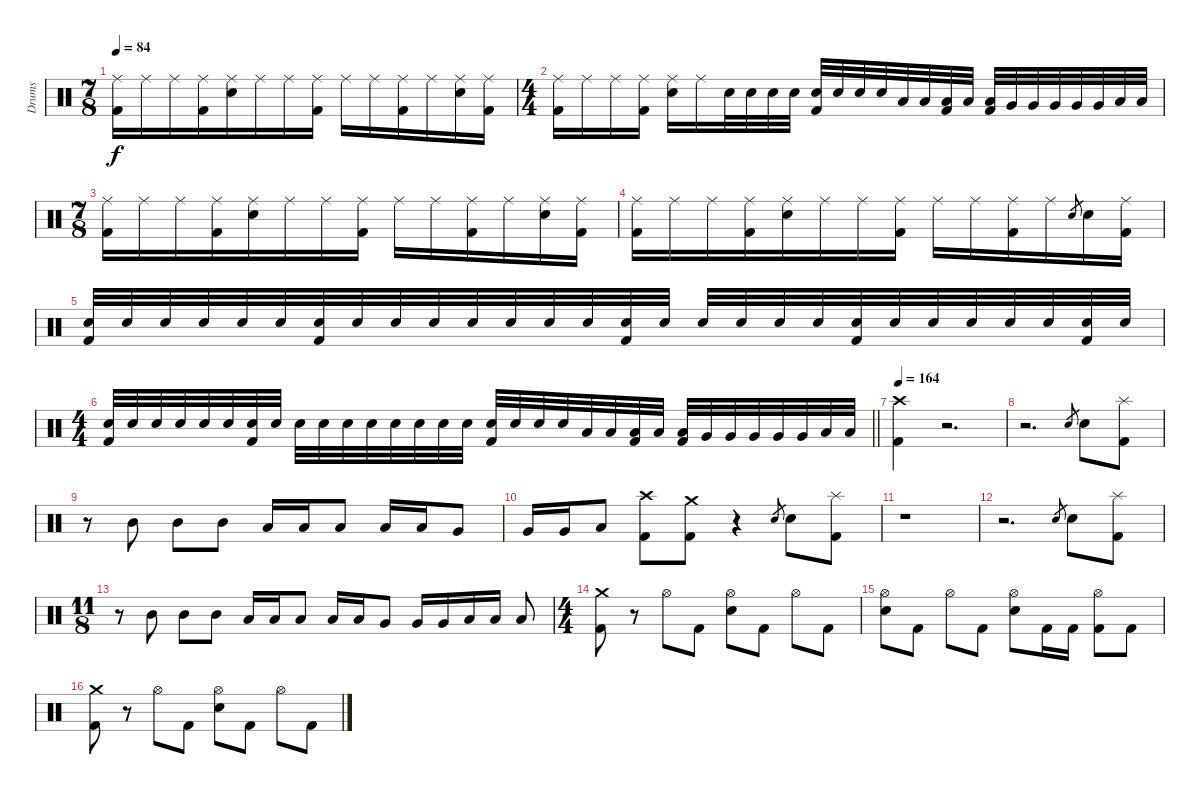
\track ("Drums" "Drums") {instrument percussion}
\staff {score}
\articulation defaults
\ts (7 8)
\tempo 84
\clef neutral
\ks c
("Ride (middle)" "Kick (hit) 2").16{dy f} "Ride (middle)".16 "Ride (middle)".16 ("Ride (middle)" "Kick (hit) 2").16 ("Ride (middle)" "Electric Snare (hit)").16 "Ride (middle)".16 "Ride (middle)".16 ("Ride (middle)" "Kick (hit) 2").16 "Ride (middle)".16 "Ride (middle)".16 ("Ride (middle)" "Kick (hit) 2").16 "Ride (middle)".16 ("Ride (middle)" "Electric Snare (hit)").16 ("Ride (middle)" "Kick (hit) 2").16 |
\ts (4 4)
("Ride (middle)" "Kick (hit) 2").16 "Ride (middle)".16 "Ride (middle)".16 ("Ride (middle)" "Kick (hit) 2").16 ("Ride (middle)" "Electric Snare (hit)").16 "Ride (middle)".16 "Electric Snare (hit)".32 "Electric Snare (hit)".32 "Electric Snare (hit)".32 "Electric Snare (hit)".32 ("Electric Snare (hit)" "Kick (hit) 2").32 "Electric Snare (hit)".32 "Electric Snare (hit)".32 "Electric Snare (hit)".32 "Low Tom (hit)".32 "Low Tom (hit)".32 ("Low Tom (hit)" "Kick (hit) 2").32 "Low Tom (hit)".32 ("Low Tom (hit)" "Kick (hit) 2").32 "Very Low Tom (hit)".32 "Very Low Tom (hit)".32 "Very Low Tom (hit)".32 "Very Low Tom (hit)".32 "Very Low Tom (hit)".32 "Low Floor Tom (hit)".32 "Low Floor Tom (hit)".32 |
\ts (7 8)
("Ride (middle)" "Kick (hit) 2").16 "Ride (middle)".16 "Ride (middle)".16 ("Ride (middle)" "Kick (hit) 2").16 ("Ride (middle)" "Electric Snare (hit)").16 "Ride (middle)".16 "Ride (middle)".16 ("Ride (middle)" "Kick (hit) 2").16 "Ride (middle)".16 "Ride (middle)".16 ("Ride (middle)" "Kick (hit) 2").16 "Ride (middle)".16 ("Ride (middle)" "Electric Snare (hit)").16 ("Ride (middle)" "Kick (hit) 2").16 |
("Ride (middle)" "Kick (hit) 2").16 "Ride (middle)".16 "Ride (middle)".16 ("Ride (middle)" "Kick (hit) 2").16 ("Ride (middle)" "Electric Snare (hit)").16 "Ride (middle)".16 "Ride (middle)".16 ("Ride (middle)" "Kick (hit) 2").16 "Ride (middle)".16 "Ride (middle)".16 ("Ride (middle)" "Kick (hit) 2").16 "Ride (middle)".16 "Electric Snare (hit)".8{gr} "Electric Snare (hit)".16 ("Ride (middle)" "Kick (hit) 2").16 |
("Electric Snare (hit)" "Kick (hit) 2").32 "Electric Snare (hit)".32 "Electric Snare (hit)".32 "Electric Snare (hit)".32 "Electric Snare (hit)".32 "Electric Snare (hit)".32 ("Electric Snare (hit)" "Kick (hit) 2").32 "Electric Snare (hit)".32 "Electric Snare (hit)".32 "Electric Snare (hit)".32 "Electric Snare (hit)".32 "Electric Snare (hit)".32 "Electric Snare (hit)".32 "Electric Snare (hit)".32 ("Electric Snare (hit)" "Kick (hit) 2").32 "Electric Snare (hit)".32 "Electric Snare (hit)".32 "Electric Snare (hit)".32 "Electric Snare (hit)".32 "Electric Snare (hit)".32 ("Electric Snare (hit)" "Kick (hit) 2").32 "Electric Snare (hit)".32 "Electric Snare (hit)".32 "Electric Snare (hit)".32 "Electric Snare (hit)".32 "Electric Snare (hit)".32 ("Electric Snare (hit)" "Kick (hit) 2").32 "Electric Snare (hit)".32 |
\ts (4 4)
\barLineRight lightlight
("Electric Snare (hit)" "Kick (hit) 2").32 "Electric Snare (hit)".32 "Electric Snare (hit)".32 "Electric Snare (hit)".32 "Electric Snare (hit)".32 "Electric Snare (hit)".32 ("Electric Snare (hit)" "Kick (hit) 2").32 "Electric Snare (hit)".32 "Electric Snare (hit)".32 "Electric Snare (hit)".32 "Electric Snare (hit)".32 "Electric Snare (hit)".32 "Electric Snare (hit)".32 "Electric Snare (hit)".32 "Electric Snare (hit)".32 "Electric Snare (hit)".32 ("Electric Snare (hit)" "Kick (hit) 2").32 "Electric Snare (hit)".32 "Electric Snare (hit)".32 "Electric Snare (hit)".32 "Low Tom (hit)".32 "Low Tom (hit)".32 ("Low Tom (hit)" "Kick (hit) 2").32 "Low Tom (hit)".32 ("Low Tom (hit)" "Kick (hit) 2").32 "Very Low Tom (hit)".32 "Very Low Tom (hit)".32 "Very Low Tom (hit)".32 "Very Low Tom (hit)".32 "Very Low Tom (hit)".32 "Low Floor Tom (hit)".32 "Low Floor Tom (hit)".32 |
\tempo 164
("Crash high (hit)" "Kick (hit) 2").4 r.2{d} |
r.2{d} "Electric Snare (hit)".8{gr} "Electric Snare (hit)".8 ("Splash (hit)" "Kick (hit) 2").8 |
r.8 "Mid Tom (hit)".8 "Mid Tom (hit)".8 "Mid Tom (hit)".8 "Low Tom (hit)".16 "Low Tom (hit)".16 "Low Tom (hit)".8 "Low Tom (hit)".16 "Low Tom (hit)".16 "Very Low Tom (hit)".8 |
"Very Low Tom (hit)".16 "Very Low Tom (hit)".16 "Low Floor Tom (hit)".8 ("Crash high (hit)" "Kick (hit) 2").8 ("Crash medium (hit)" "Kick (hit) 2").8 r.4 "Electric Snare (hit)".8{gr} "Electric Snare (hit)".8 ("Splash (hit)" "Kick (hit) 2").8 |
r.1 |
r.2{d} "Electric Snare (hit)".8{gr} "Electric Snare (hit)".8 ("Splash (hit)" "Kick (hit) 2").8 |
\ts (11 8)
r.8 "Mid Tom (hit)".8 "Mid Tom (hit)".8 "Mid Tom (hit)".8 "Low Tom (hit)".16 "Low Tom (hit)".16 "Low Tom (hit)".8 "Low Tom (hit)".16 "Low Tom (hit)".16 "Very Low Tom (hit)".8 "Very Low Tom (hit)".16 "Very Low Tom (hit)".16 "Low Floor Tom (hit)".16 "Low Floor Tom (hit)".16 "Low Floor Tom (hit)".8 |
\ts (4 4)
("Crash medium (hit)" "Kick (hit) 2").8 r.8 "Hi-Hat (open)".8 "Kick (hit) 2".8 ("Hi-Hat (open)" "Electric Snare (hit)").8 "Kick (hit) 2".8 "Hi-Hat (open)".8 "Kick (hit) 2".8 |
("Hi-Hat (open)" "Electric Snare (hit)").8 "Kick (hit) 2".8 "Hi-Hat (open)".8 "Kick (hit) 2".8 ("Hi-Hat (open)" "Electric Snare (hit)").8 "Kick (hit) 2".16 "Kick (hit) 2".16 ("Hi-Hat (open)" "Kick (hit) 2").8 "Kick (hit) 2".8 |
("Crash medium (hit)" "Kick (hit) 2").8 r.8 "Hi-Hat (open)".8 "Kick (hit) 2".8 ("Hi-Hat (open)" "Electric Snare (hit)").8 "Kick (hit) 2".8 "Hi-Hat (open)".8 "Kick (hit) 2".8
